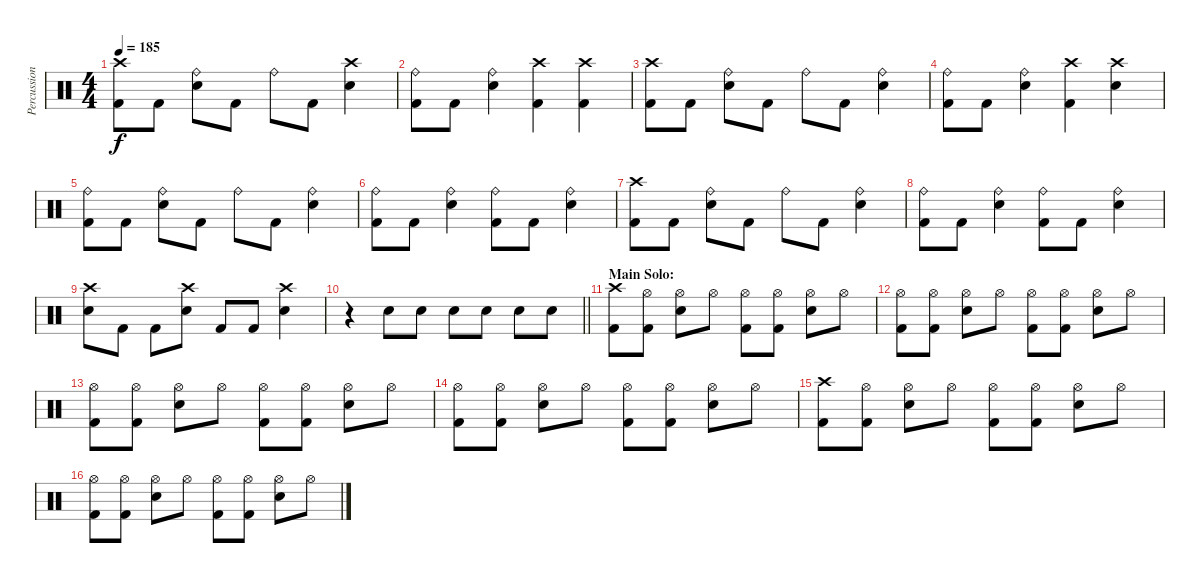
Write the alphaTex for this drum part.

\track ("Percussion" "Percussion") {instrument percussion}
\staff {score}
\articulation defaults
\ts (4 4)
\tempo 185
\clef neutral
\ks c
("Crash high (hit)" "Kick (hit) 2").8{dy f} "Kick (hit) 2".8 ("Ride (bell)" "Snare (hit) 2").8 "Kick (hit) 2".8 "Ride (bell)".8 "Kick (hit) 2".8 ("Crash high (hit)" "Snare (hit) 2").4 |
("Ride (bell)" "Kick (hit) 2").8 "Kick (hit) 2".8 ("Ride (bell)" "Snare (hit) 2").4 ("Crash high (hit)" "Kick (hit) 2").4 ("Crash high (hit)" "Kick (hit) 2").4 |
("Crash high (hit)" "Kick (hit) 2").8 "Kick (hit) 2".8 ("Ride (bell)" "Snare (hit) 2").8 "Kick (hit) 2".8 "Ride (bell)".8 "Kick (hit) 2".8 ("Ride (bell)" "Snare (hit) 2").4 |
("Ride (bell)" "Kick (hit) 2").8 "Kick (hit) 2".8 ("Ride (bell)" "Snare (hit) 2").4 ("Crash high (hit)" "Kick (hit) 2").4 ("Crash high (hit)" "Snare (hit) 2").4 |
("Ride (bell)" "Kick (hit) 2").8 "Kick (hit) 2".8 ("Ride (bell)" "Snare (hit) 2").8 "Kick (hit) 2".8 "Ride (bell)".8 "Kick (hit) 2".8 ("Ride (bell)" "Snare (hit) 2").4 |
("Ride (bell)" "Kick (hit) 2").8 "Kick (hit) 2".8 ("Ride (bell)" "Snare (hit) 2").4 ("Ride (bell)" "Kick (hit) 2").8 "Kick (hit) 2".8 ("Ride (bell)" "Snare (hit) 2").4 |
("Crash high (hit)" "Kick (hit) 2").8 "Kick (hit) 2".8 ("Ride (bell)" "Snare (hit) 2").8 "Kick (hit) 2".8 "Ride (bell)".8 "Kick (hit) 2".8 ("Ride (bell)" "Snare (hit) 2").4 |
("Ride (bell)" "Kick (hit) 2").8 "Kick (hit) 2".8 ("Ride (bell)" "Snare (hit) 2").4 ("Ride (bell)" "Kick (hit) 2").8 "Kick (hit) 2".8 ("Ride (bell)" "Snare (hit) 2").4 |
("Crash high (hit)" "Snare (hit) 2").8 "Kick (hit) 2".8 "Kick (hit) 2".8 ("Crash high (hit)" "Snare (hit) 2").8 "Kick (hit) 2".8 "Kick (hit) 2".8 ("Crash high (hit)" "Snare (hit) 2").4 |
\barLineRight lightlight
r.4 "Snare (hit) 2".8 "Snare (hit) 2".8 "Snare (hit) 2".8 "Snare (hit) 2".8 "Snare (hit) 2".8 "Snare (hit) 2".8 |
\section ("" "Main Solo:")
("Crash high (hit)" "Kick (hit) 2").8 ("Hi-Hat (open)" "Kick (hit) 2").8 ("Hi-Hat (open)" "Snare (hit) 2").8 "Hi-Hat (open)".8 ("Hi-Hat (open)" "Kick (hit) 2").8 ("Hi-Hat (open)" "Kick (hit) 2").8 ("Hi-Hat (open)" "Snare (hit) 2").8 "Hi-Hat (open)".8 |
("Hi-Hat (open)" "Kick (hit) 2").8 ("Hi-Hat (open)" "Kick (hit) 2").8 ("Hi-Hat (open)" "Snare (hit) 2").8 "Hi-Hat (open)".8 ("Hi-Hat (open)" "Kick (hit) 2").8 ("Hi-Hat (open)" "Kick (hit) 2").8 ("Hi-Hat (open)" "Snare (hit) 2").8 "Hi-Hat (open)".8 |
("Hi-Hat (open)" "Kick (hit) 2").8 ("Hi-Hat (open)" "Kick (hit) 2").8 ("Hi-Hat (open)" "Snare (hit) 2").8 "Hi-Hat (open)".8 ("Hi-Hat (open)" "Kick (hit) 2").8 ("Hi-Hat (open)" "Kick (hit) 2").8 ("Hi-Hat (open)" "Snare (hit) 2").8 "Hi-Hat (open)".8 |
("Hi-Hat (open)" "Kick (hit) 2").8 ("Hi-Hat (open)" "Kick (hit) 2").8 ("Hi-Hat (open)" "Snare (hit) 2").8 "Hi-Hat (open)".8 ("Hi-Hat (open)" "Kick (hit) 2").8 ("Hi-Hat (open)" "Kick (hit) 2").8 ("Hi-Hat (open)" "Snare (hit) 2").8 "Hi-Hat (open)".8 |
("Crash high (hit)" "Kick (hit) 2").8 ("Hi-Hat (open)" "Kick (hit) 2").8 ("Hi-Hat (open)" "Snare (hit) 2").8 "Hi-Hat (open)".8 ("Hi-Hat (open)" "Kick (hit) 2").8 ("Hi-Hat (open)" "Kick (hit) 2").8 ("Hi-Hat (open)" "Snare (hit) 2").8 "Hi-Hat (open)".8 |
("Hi-Hat (open)" "Kick (hit) 2").8 ("Hi-Hat (open)" "Kick (hit) 2").8 ("Hi-Hat (open)" "Snare (hit) 2").8 "Hi-Hat (open)".8 ("Hi-Hat (open)" "Kick (hit) 2").8 ("Hi-Hat (open)" "Kick (hit) 2").8 ("Hi-Hat (open)" "Snare (hit) 2").8 "Hi-Hat (open)".8
